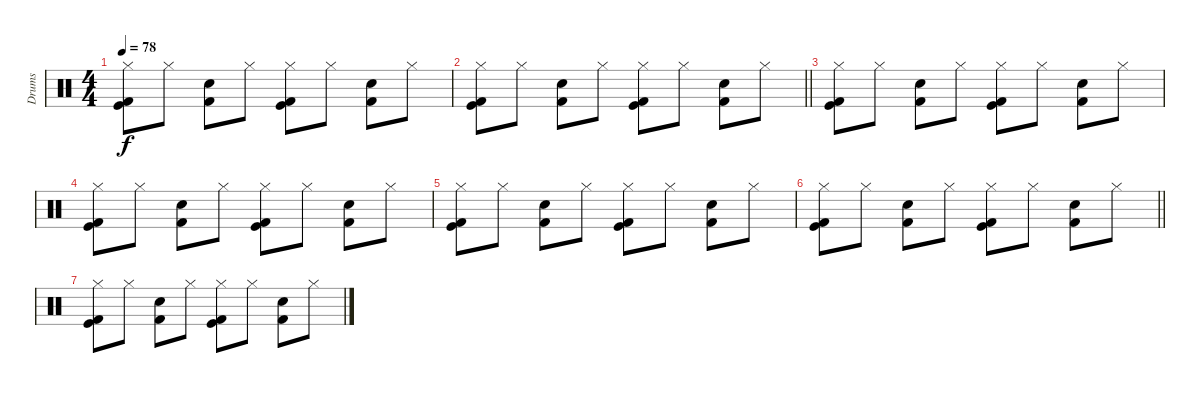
\track ("Drums" "Drums") {instrument percussion}
\staff {score}
\articulation defaults
\ts (4 4)
\tempo 78
\clef neutral
\ks c
("Hi-Hat (closed)" "Kick (hit)" "Kick (hit) 2").8{dy f} "Hi-Hat (closed)".8 ("Snare (hit) 2" "Kick (hit) 2").8 "Hi-Hat (closed)".8 ("Hi-Hat (closed)" "Kick (hit)" "Kick (hit) 2").8 "Hi-Hat (closed)".8 ("Snare (hit) 2" "Kick (hit) 2").8 "Hi-Hat (closed)".8 |
\barLineRight lightlight
("Hi-Hat (closed)" "Kick (hit)" "Kick (hit) 2").8 "Hi-Hat (closed)".8 ("Snare (hit) 2" "Kick (hit) 2").8 "Hi-Hat (closed)".8 ("Hi-Hat (closed)" "Kick (hit)" "Kick (hit) 2").8 "Hi-Hat (closed)".8 ("Snare (hit) 2" "Kick (hit) 2").8 "Hi-Hat (closed)".8 |
("Hi-Hat (closed)" "Kick (hit)" "Kick (hit) 2").8 "Hi-Hat (closed)".8 ("Snare (hit) 2" "Kick (hit) 2").8 "Hi-Hat (closed)".8 ("Hi-Hat (closed)" "Kick (hit)" "Kick (hit) 2").8 "Hi-Hat (closed)".8 ("Snare (hit) 2" "Kick (hit) 2").8 "Hi-Hat (closed)".8 |
("Hi-Hat (closed)" "Kick (hit)" "Kick (hit) 2").8 "Hi-Hat (closed)".8 ("Snare (hit) 2" "Kick (hit) 2").8 "Hi-Hat (closed)".8 ("Hi-Hat (closed)" "Kick (hit)" "Kick (hit) 2").8 "Hi-Hat (closed)".8 ("Snare (hit) 2" "Kick (hit) 2").8 "Hi-Hat (closed)".8 |
("Hi-Hat (closed)" "Kick (hit)" "Kick (hit) 2").8 "Hi-Hat (closed)".8 ("Snare (hit) 2" "Kick (hit) 2").8 "Hi-Hat (closed)".8 ("Hi-Hat (closed)" "Kick (hit)" "Kick (hit) 2").8 "Hi-Hat (closed)".8 ("Snare (hit) 2" "Kick (hit) 2").8 "Hi-Hat (closed)".8 |
\barLineRight lightlight
("Hi-Hat (closed)" "Kick (hit)" "Kick (hit) 2").8 "Hi-Hat (closed)".8 ("Snare (hit) 2" "Kick (hit) 2").8 "Hi-Hat (closed)".8 ("Hi-Hat (closed)" "Kick (hit)" "Kick (hit) 2").8 "Hi-Hat (closed)".8 ("Snare (hit) 2" "Kick (hit) 2").8 "Hi-Hat (closed)".8 |
("Hi-Hat (closed)" "Kick (hit)" "Kick (hit) 2").8 "Hi-Hat (closed)".8 ("Snare (hit) 2" "Kick (hit) 2").8 "Hi-Hat (closed)".8 ("Hi-Hat (closed)" "Kick (hit)" "Kick (hit) 2").8 "Hi-Hat (closed)".8 ("Snare (hit) 2" "Kick (hit) 2").8 "Hi-Hat (closed)".8
